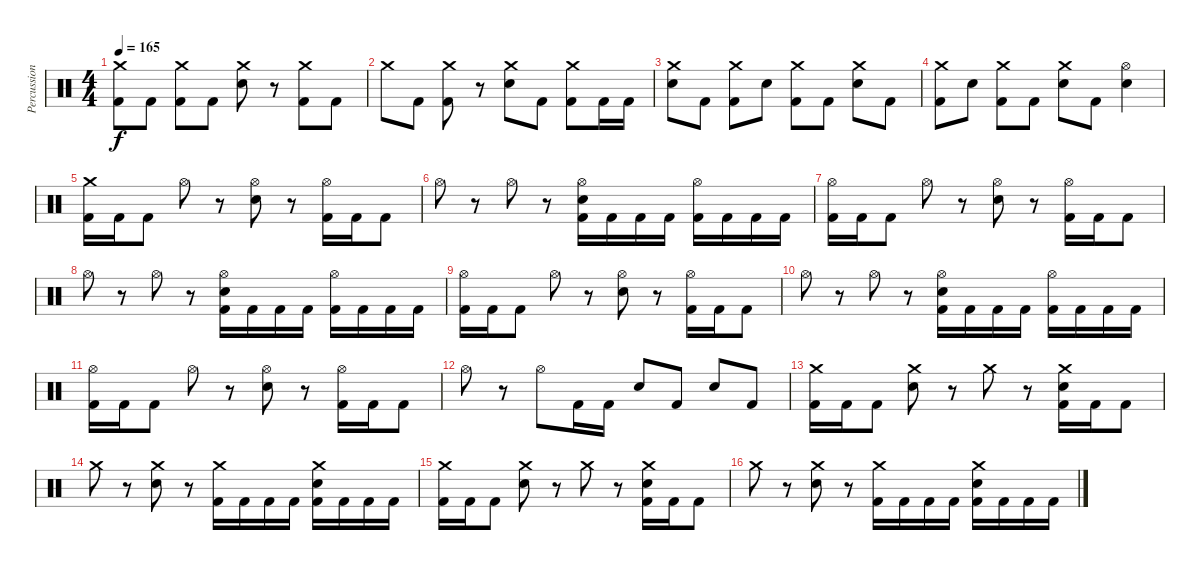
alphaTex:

\track ("Percussion" "Percussion") {instrument percussion}
\staff {score}
\articulation defaults
\ts (4 4)
\tempo 165
\clef neutral
\ks c
("Crash medium (hit)" "Kick (hit) 2").8{dy f} "Kick (hit) 2".8 ("Crash medium (hit)" "Kick (hit) 2").8 "Kick (hit) 2".8 ("Crash medium (hit)" "Snare (hit) 2").8 r.8 ("Crash medium (hit)" "Kick (hit) 2").8 "Kick (hit) 2".8 |
"Crash medium (hit)".8 "Kick (hit) 2".8 ("Crash medium (hit)" "Kick (hit) 2").8 r.8 ("Crash medium (hit)" "Snare (hit) 2").8 "Kick (hit) 2".8 ("Crash medium (hit)" "Kick (hit) 2").8 "Kick (hit) 2".16 "Kick (hit) 2".16 |
("Crash medium (hit)" "Snare (hit) 2").8 "Kick (hit) 2".8 ("Crash medium (hit)" "Kick (hit) 2").8 "Snare (hit) 2".8 ("Crash medium (hit)" "Kick (hit) 2").8 "Kick (hit) 2".8 ("Crash medium (hit)" "Snare (hit) 2").8 "Kick (hit) 2".8 |
("Crash medium (hit)" "Kick (hit) 2").8 "Snare (hit) 2".8 ("Crash medium (hit)" "Kick (hit) 2").8 "Kick (hit) 2".8 ("Crash medium (hit)" "Snare (hit) 2").8 "Kick (hit) 2".8 ("Hi-Hat (open)" "Snare (hit) 2").4 |
("Crash medium (hit)" "Kick (hit) 2").16 "Kick (hit) 2".16 "Kick (hit) 2".8 "Hi-Hat (open)".8 r.8 ("Hi-Hat (open)" "Snare (hit) 2").8 r.8 ("Hi-Hat (open)" "Kick (hit) 2").16 "Kick (hit) 2".16 "Kick (hit) 2".8 |
"Hi-Hat (open)".8 r.8 "Hi-Hat (open)".8 r.8 ("Hi-Hat (open)" "Snare (hit) 2" "Kick (hit) 2").16 "Kick (hit) 2".16 "Kick (hit) 2".16 "Kick (hit) 2".16 ("Hi-Hat (open)" "Kick (hit) 2").16 "Kick (hit) 2".16 "Kick (hit) 2".16 "Kick (hit) 2".16 |
("Hi-Hat (open)" "Kick (hit) 2").16 "Kick (hit) 2".16 "Kick (hit) 2".8 "Hi-Hat (open)".8 r.8 ("Hi-Hat (open)" "Snare (hit) 2").8 r.8 ("Hi-Hat (open)" "Kick (hit) 2").16 "Kick (hit) 2".16 "Kick (hit) 2".8 |
"Hi-Hat (open)".8 r.8 "Hi-Hat (open)".8 r.8 ("Hi-Hat (open)" "Snare (hit) 2" "Kick (hit) 2").16 "Kick (hit) 2".16 "Kick (hit) 2".16 "Kick (hit) 2".16 ("Hi-Hat (open)" "Kick (hit) 2").16 "Kick (hit) 2".16 "Kick (hit) 2".16 "Kick (hit) 2".16 |
("Hi-Hat (open)" "Kick (hit) 2").16 "Kick (hit) 2".16 "Kick (hit) 2".8 "Hi-Hat (open)".8 r.8 ("Hi-Hat (open)" "Snare (hit) 2").8 r.8 ("Hi-Hat (open)" "Kick (hit) 2").16 "Kick (hit) 2".16 "Kick (hit) 2".8 |
"Hi-Hat (open)".8 r.8 "Hi-Hat (open)".8 r.8 ("Hi-Hat (open)" "Snare (hit) 2" "Kick (hit) 2").16 "Kick (hit) 2".16 "Kick (hit) 2".16 "Kick (hit) 2".16 ("Hi-Hat (open)" "Kick (hit) 2").16 "Kick (hit) 2".16 "Kick (hit) 2".16 "Kick (hit) 2".16 |
("Hi-Hat (open)" "Kick (hit) 2").16 "Kick (hit) 2".16 "Kick (hit) 2".8 "Hi-Hat (open)".8 r.8 ("Hi-Hat (open)" "Snare (hit) 2").8 r.8 ("Hi-Hat (open)" "Kick (hit) 2").16 "Kick (hit) 2".16 "Kick (hit) 2".8 |
"Hi-Hat (open)".8 r.8 "Hi-Hat (open)".8 "Kick (hit) 2".16 "Kick (hit) 2".16 "Snare (hit) 2".8 "Kick (hit) 2".8 "Snare (hit) 2".8 "Kick (hit) 2".8 |
("Crash medium (hit)" "Kick (hit) 2").16 "Kick (hit) 2".16 "Kick (hit) 2".8 ("Crash medium (hit)" "Snare (hit) 2").8 r.8 "Crash medium (hit)".8 r.8 ("Crash medium (hit)" "Snare (hit) 2" "Kick (hit) 2").16 "Kick (hit) 2".16 "Kick (hit) 2".8 |
"Crash medium (hit)".8 r.8 ("Crash medium (hit)" "Snare (hit) 2").8 r.8 ("Crash medium (hit)" "Kick (hit) 2").16 "Kick (hit) 2".16 "Kick (hit) 2".16 "Kick (hit) 2".16 ("Crash medium (hit)" "Snare (hit) 2" "Kick (hit) 2").16 "Kick (hit) 2".16 "Kick (hit) 2".16 "Kick (hit) 2".16 |
("Crash medium (hit)" "Kick (hit) 2").16 "Kick (hit) 2".16 "Kick (hit) 2".8 ("Crash medium (hit)" "Snare (hit) 2").8 r.8 "Crash medium (hit)".8 r.8 ("Crash medium (hit)" "Snare (hit) 2" "Kick (hit) 2").16 "Kick (hit) 2".16 "Kick (hit) 2".8 |
"Crash medium (hit)".8 r.8 ("Crash medium (hit)" "Snare (hit) 2").8 r.8 ("Crash medium (hit)" "Kick (hit) 2").16 "Kick (hit) 2".16 "Kick (hit) 2".16 "Kick (hit) 2".16 ("Crash medium (hit)" "Snare (hit) 2" "Kick (hit) 2").16 "Kick (hit) 2".16 "Kick (hit) 2".16 "Kick (hit) 2".16
